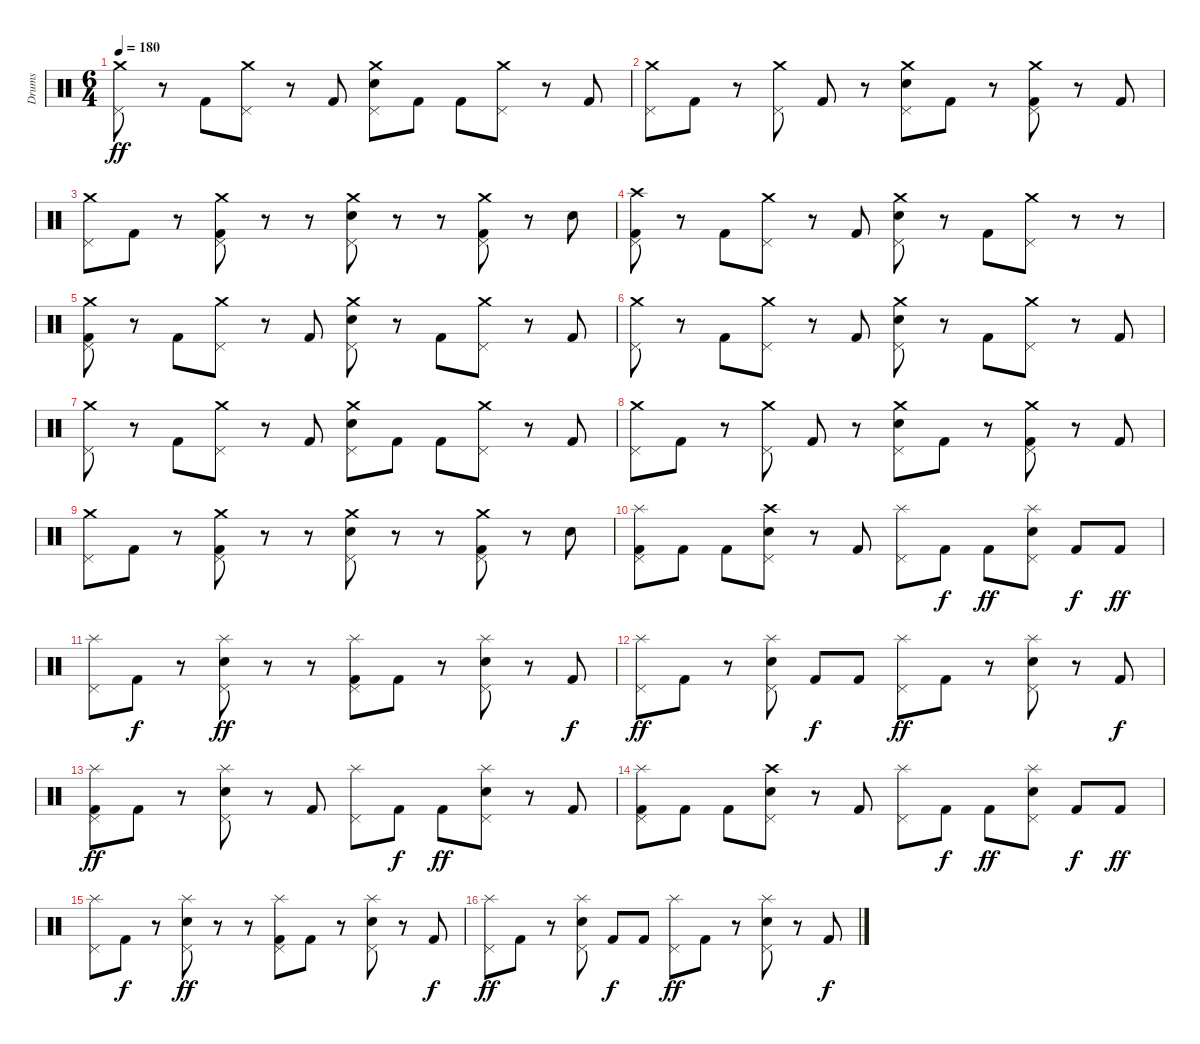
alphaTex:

\track ("Drums" "Drums") {instrument percussion}
\staff {score}
\articulation defaults
\ts (6 4)
\tempo 180
\clef neutral
\ks c
("Crash medium (hit)" "Pedal Hi-Hat (hit)").8{dy ff} r.8 "Kick (hit) 2".8 ("Crash medium (hit)" "Pedal Hi-Hat (hit)").8 r.8 "Kick (hit) 2".8 ("Crash medium (hit)" "Pedal Hi-Hat (hit)" "Electric Snare (hit)").8 "Kick (hit) 2".8 "Kick (hit) 2".8 ("Crash medium (hit)" "Pedal Hi-Hat (hit)").8 r.8 "Kick (hit) 2".8 |
("Crash medium (hit)" "Pedal Hi-Hat (hit)").8 "Kick (hit) 2".8 r.8 ("Crash medium (hit)" "Pedal Hi-Hat (hit)").8 "Kick (hit) 2".8 r.8 ("Crash medium (hit)" "Pedal Hi-Hat (hit)" "Electric Snare (hit)").8 "Kick (hit) 2".8 r.8 ("Crash medium (hit)" "Pedal Hi-Hat (hit)" "Kick (hit) 2").8 r.8 "Kick (hit) 2".8 |
("Crash medium (hit)" "Pedal Hi-Hat (hit)").8 "Kick (hit) 2".8 r.8 ("Crash medium (hit)" "Pedal Hi-Hat (hit)" "Kick (hit) 2").8 r.8 r.8 ("Crash medium (hit)" "Pedal Hi-Hat (hit)" "Electric Snare (hit)").8 r.8 r.8 ("Crash medium (hit)" "Pedal Hi-Hat (hit)" "Kick (hit) 2").8 r.8 "Electric Snare (hit)".8 |
\section ("" "")
("Crash high (hit)" "Pedal Hi-Hat (hit)" "Kick (hit) 2").8 r.8 "Kick (hit) 2".8 ("Crash medium (hit)" "Pedal Hi-Hat (hit)").8 r.8 "Kick (hit) 2".8 ("Crash medium (hit)" "Pedal Hi-Hat (hit)" "Electric Snare (hit)").8 r.8 "Kick (hit) 2".8 ("Crash medium (hit)" "Pedal Hi-Hat (hit)").8 r.8 r.8 |
("Crash medium (hit)" "Pedal Hi-Hat (hit)" "Kick (hit) 2").8 r.8 "Kick (hit) 2".8 ("Crash medium (hit)" "Pedal Hi-Hat (hit)").8 r.8 "Kick (hit) 2".8 ("Crash medium (hit)" "Pedal Hi-Hat (hit)" "Electric Snare (hit)").8 r.8 "Kick (hit) 2".8 ("Crash medium (hit)" "Pedal Hi-Hat (hit)").8 r.8 "Kick (hit) 2".8 |
("Crash medium (hit)" "Pedal Hi-Hat (hit)").8 r.8 "Kick (hit) 2".8 ("Crash medium (hit)" "Pedal Hi-Hat (hit)").8 r.8 "Kick (hit) 2".8 ("Crash medium (hit)" "Pedal Hi-Hat (hit)" "Electric Snare (hit)").8 r.8 "Kick (hit) 2".8 ("Crash medium (hit)" "Pedal Hi-Hat (hit)").8 r.8 "Kick (hit) 2".8 |
("Crash medium (hit)" "Pedal Hi-Hat (hit)").8 r.8 "Kick (hit) 2".8 ("Crash medium (hit)" "Pedal Hi-Hat (hit)").8 r.8 "Kick (hit) 2".8 ("Crash medium (hit)" "Pedal Hi-Hat (hit)" "Electric Snare (hit)").8 "Kick (hit) 2".8 "Kick (hit) 2".8 ("Crash medium (hit)" "Pedal Hi-Hat (hit)").8 r.8 "Kick (hit) 2".8 |
("Crash medium (hit)" "Pedal Hi-Hat (hit)").8 "Kick (hit) 2".8 r.8 ("Crash medium (hit)" "Pedal Hi-Hat (hit)").8 "Kick (hit) 2".8 r.8 ("Crash medium (hit)" "Pedal Hi-Hat (hit)" "Electric Snare (hit)").8 "Kick (hit) 2".8 r.8 ("Crash medium (hit)" "Pedal Hi-Hat (hit)" "Kick (hit) 2").8 r.8 "Kick (hit) 2".8 |
("Crash medium (hit)" "Pedal Hi-Hat (hit)").8 "Kick (hit) 2".8 r.8 ("Crash medium (hit)" "Pedal Hi-Hat (hit)" "Kick (hit) 2").8 r.8 r.8 ("Crash medium (hit)" "Pedal Hi-Hat (hit)" "Electric Snare (hit)").8 r.8 r.8 ("Crash medium (hit)" "Pedal Hi-Hat (hit)" "Kick (hit) 2").8 r.8 "Electric Snare (hit)".8 |
\section ("" "")
("Splash (hit)" "Pedal Hi-Hat (hit)" "Kick (hit) 2").8 "Kick (hit) 2".8 "Kick (hit) 2".8 ("Crash high (hit)" "Pedal Hi-Hat (hit)" "Electric Snare (hit)").8 r.8 "Kick (hit) 2".8 ("Splash (hit)" "Pedal Hi-Hat (hit)").8 "Kick (hit) 2".8{dy f} "Kick (hit) 2".8{dy ff} ("Splash (hit)" "Pedal Hi-Hat (hit)" "Electric Snare (hit)").8 "Kick (hit) 2".8{dy f} "Kick (hit) 2".8{dy ff} |
("Splash (hit)" "Pedal Hi-Hat (hit)").8 "Kick (hit) 2".8{dy f} r.8 ("Splash (hit)" "Pedal Hi-Hat (hit)" "Electric Snare (hit)").8{dy ff} r.8 r.8 ("Splash (hit)" "Pedal Hi-Hat (hit)" "Kick (hit) 2").8 "Kick (hit) 2".8 r.8 ("Splash (hit)" "Pedal Hi-Hat (hit)" "Electric Snare (hit)").8 r.8 "Kick (hit) 2".8{dy f} |
("Splash (hit)" "Pedal Hi-Hat (hit)").8{dy ff} "Kick (hit) 2".8 r.8 ("Splash (hit)" "Pedal Hi-Hat (hit)" "Electric Snare (hit)").8 "Kick (hit) 2".8{dy f} "Kick (hit) 2".8 ("Splash (hit)" "Pedal Hi-Hat (hit)").8{dy ff} "Kick (hit) 2".8 r.8 ("Splash (hit)" "Pedal Hi-Hat (hit)" "Electric Snare (hit)").8 r.8 "Kick (hit) 2".8{dy f} |
("Splash (hit)" "Pedal Hi-Hat (hit)" "Kick (hit) 2").8{dy ff} "Kick (hit) 2".8 r.8 ("Splash (hit)" "Pedal Hi-Hat (hit)" "Electric Snare (hit)").8 r.8 "Kick (hit) 2".8 ("Splash (hit)" "Pedal Hi-Hat (hit)").8 "Kick (hit) 2".8{dy f} "Kick (hit) 2".8{dy ff} ("Splash (hit)" "Pedal Hi-Hat (hit)" "Electric Snare (hit)").8 r.8 "Kick (hit) 2".8 |
("Splash (hit)" "Pedal Hi-Hat (hit)" "Kick (hit) 2").8 "Kick (hit) 2".8 "Kick (hit) 2".8 ("Crash high (hit)" "Pedal Hi-Hat (hit)" "Electric Snare (hit)").8 r.8 "Kick (hit) 2".8 ("Splash (hit)" "Pedal Hi-Hat (hit)").8 "Kick (hit) 2".8{dy f} "Kick (hit) 2".8{dy ff} ("Splash (hit)" "Pedal Hi-Hat (hit)" "Electric Snare (hit)").8 "Kick (hit) 2".8{dy f} "Kick (hit) 2".8{dy ff} |
("Splash (hit)" "Pedal Hi-Hat (hit)").8 "Kick (hit) 2".8{dy f} r.8 ("Splash (hit)" "Pedal Hi-Hat (hit)" "Electric Snare (hit)").8{dy ff} r.8 r.8 ("Splash (hit)" "Pedal Hi-Hat (hit)" "Kick (hit) 2").8 "Kick (hit) 2".8 r.8 ("Splash (hit)" "Pedal Hi-Hat (hit)" "Electric Snare (hit)").8 r.8 "Kick (hit) 2".8{dy f} |
("Splash (hit)" "Pedal Hi-Hat (hit)").8{dy ff} "Kick (hit) 2".8 r.8 ("Splash (hit)" "Pedal Hi-Hat (hit)" "Electric Snare (hit)").8 "Kick (hit) 2".8{dy f} "Kick (hit) 2".8 ("Splash (hit)" "Pedal Hi-Hat (hit)").8{dy ff} "Kick (hit) 2".8 r.8 ("Splash (hit)" "Pedal Hi-Hat (hit)" "Electric Snare (hit)").8 r.8 "Kick (hit) 2".8{dy f}
